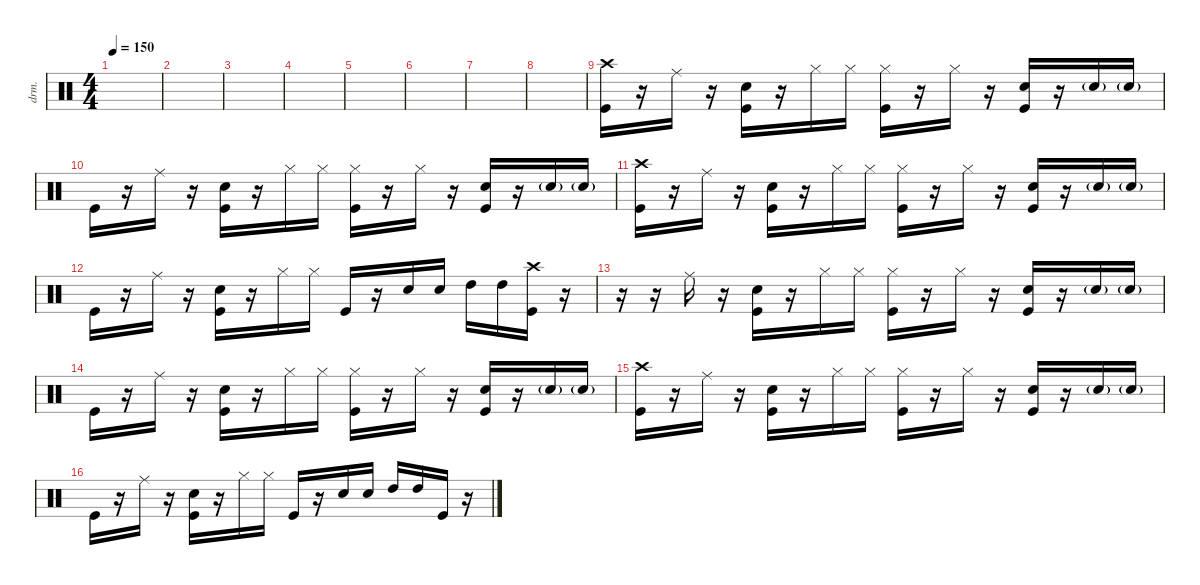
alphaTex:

\defaultSystemsLayout 4
\hideDynamics
\bracketExtendMode nobrackets
\track ("Drumkit" "drm.") {instrument percussion}
\staff {score}
\articulation defaults
\ts (4 4)
\tempo 150
\clef neutral
\ks c
|
|
|
|
|
|
|
|
("Kick (hit)" "Crash high (hit)").16 r.16 "Ride (middle)".16 r.16 ("Snare (hit) 2" "Kick (hit)").16 r.16 "Hi-Hat (closed)".16 "Hi-Hat (closed)".16 ("Kick (hit)" "Hi-Hat (closed)").16 r.16 "Hi-Hat (closed)".16 r.16 ("Kick (hit)" "Snare (hit) 2").16 r.16 "Snare (hit) 2"{g}.16 "Snare (hit) 2"{g}.16 |
"Kick (hit)".16 r.16 "Ride (middle)".16 r.16 ("Snare (hit) 2" "Kick (hit)").16 r.16 "Hi-Hat (closed)".16 "Hi-Hat (closed)".16 ("Kick (hit)" "Hi-Hat (closed)").16 r.16 "Hi-Hat (closed)".16 r.16 ("Kick (hit)" "Snare (hit) 2").16 r.16 "Snare (hit) 2"{g}.16 "Snare (hit) 2"{g}.16 |
("Kick (hit)" "Crash high (hit)").16 r.16 "Ride (middle)".16 r.16 ("Snare (hit) 2" "Kick (hit)").16 r.16 "Hi-Hat (closed)".16 "Hi-Hat (closed)".16 ("Kick (hit)" "Hi-Hat (closed)").16 r.16 "Hi-Hat (closed)".16 r.16 ("Kick (hit)" "Snare (hit) 2").16 r.16 "Snare (hit) 2"{g}.16 "Snare (hit) 2"{g}.16 |
"Kick (hit)".16 r.16 "Ride (middle)".16 r.16 ("Snare (hit) 2" "Kick (hit)").16 r.16 "Hi-Hat (closed)".16 "Hi-Hat (closed)".16 "Kick (hit)".16 r.16 "Snare (hit) 2".16 "Snare (hit) 2".16 "High Tom (hit)".16 "High Tom (hit)".16 ("Kick (hit)" "Crash high (hit)").16 r.16 |
r.16 r.16 "Ride (middle)".16 r.16 ("Snare (hit) 2" "Kick (hit)").16 r.16 "Hi-Hat (closed)".16 "Hi-Hat (closed)".16 ("Kick (hit)" "Hi-Hat (closed)").16 r.16 "Hi-Hat (closed)".16 r.16 ("Kick (hit)" "Snare (hit) 2").16 r.16 "Snare (hit) 2"{g}.16 "Snare (hit) 2"{g}.16 |
"Kick (hit)".16 r.16 "Ride (middle)".16 r.16 ("Snare (hit) 2" "Kick (hit)").16 r.16 "Hi-Hat (closed)".16 "Hi-Hat (closed)".16 ("Kick (hit)" "Hi-Hat (closed)").16 r.16 "Hi-Hat (closed)".16 r.16 ("Kick (hit)" "Snare (hit) 2").16 r.16 "Snare (hit) 2"{g}.16 "Snare (hit) 2"{g}.16 |
("Kick (hit)" "Crash high (hit)").16 r.16 "Ride (middle)".16 r.16 ("Snare (hit) 2" "Kick (hit)").16 r.16 "Hi-Hat (closed)".16 "Hi-Hat (closed)".16 ("Kick (hit)" "Hi-Hat (closed)").16 r.16 "Hi-Hat (closed)".16 r.16 ("Kick (hit)" "Snare (hit) 2").16 r.16 "Snare (hit) 2"{g}.16 "Snare (hit) 2"{g}.16 |
"Kick (hit)".16 r.16 "Ride (middle)".16 r.16 ("Snare (hit) 2" "Kick (hit)").16 r.16 "Hi-Hat (closed)".16 "Hi-Hat (closed)".16 "Kick (hit)".16 r.16 "Snare (hit) 2".16 "Snare (hit) 2".16 "High Tom (hit)".16 "High Tom (hit)".16 "Kick (hit)".16 r.16
